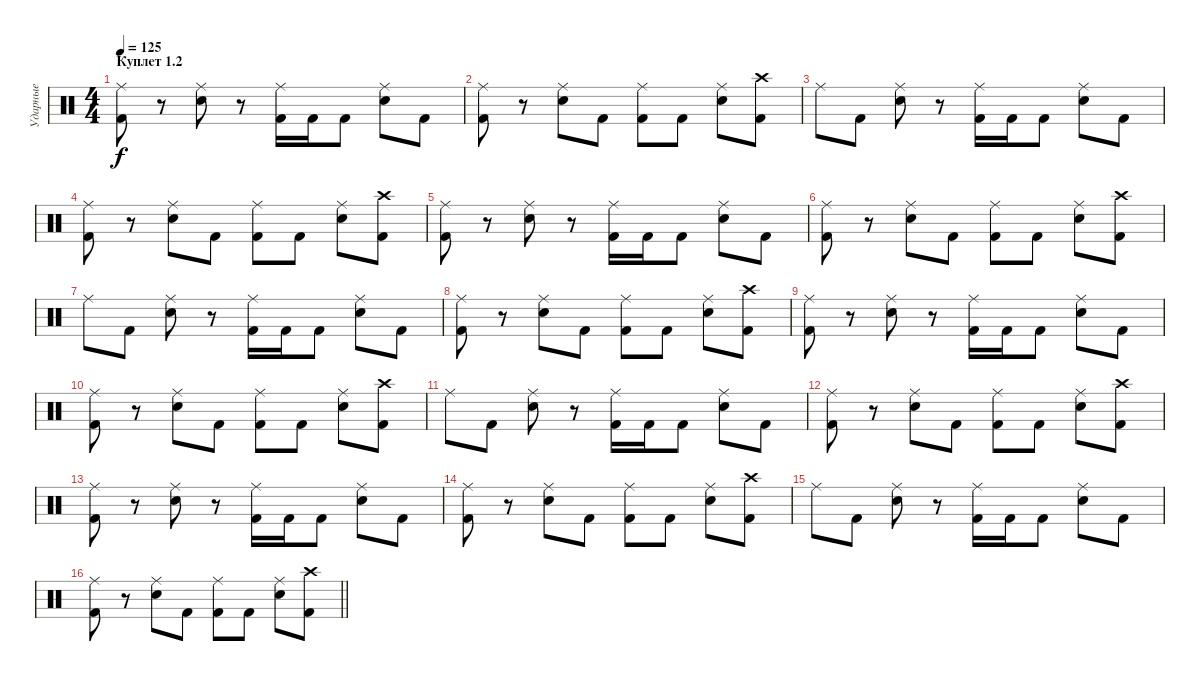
\track ("Ударные" "Ударные") {instrument percussion}
\staff {score}
\articulation defaults
\ts (4 4)
\section ("" "Куплет 1.2")
\tempo 125
\clef neutral
\ks c
("Ride (middle)" "Kick (hit) 2").8{dy f} r.8 ("Ride (middle)" "Snare (hit) 2").8 r.8 ("Ride (middle)" "Kick (hit) 2").16 "Kick (hit) 2".16 "Kick (hit) 2".8 ("Ride (middle)" "Snare (hit) 2").8 "Kick (hit) 2".8 |
("Ride (middle)" "Kick (hit) 2").8 r.8 ("Ride (middle)" "Snare (hit) 2").8 "Kick (hit) 2".8 ("Ride (middle)" "Kick (hit) 2").8 "Kick (hit) 2".8 ("Ride (middle)" "Snare (hit) 2").8 ("Crash high (hit)" "Kick (hit) 2").8 |
"Ride (middle)".8 "Kick (hit) 2".8 ("Ride (middle)" "Snare (hit) 2").8 r.8 ("Ride (middle)" "Kick (hit) 2").16 "Kick (hit) 2".16 "Kick (hit) 2".8 ("Ride (middle)" "Snare (hit) 2").8 "Kick (hit) 2".8 |
("Ride (middle)" "Kick (hit) 2").8 r.8 ("Ride (middle)" "Snare (hit) 2").8 "Kick (hit) 2".8 ("Ride (middle)" "Kick (hit) 2").8 "Kick (hit) 2".8 ("Ride (middle)" "Snare (hit) 2").8 ("Crash high (hit)" "Kick (hit) 2").8 |
("Ride (middle)" "Kick (hit) 2").8 r.8 ("Ride (middle)" "Snare (hit) 2").8 r.8 ("Ride (middle)" "Kick (hit) 2").16 "Kick (hit) 2".16 "Kick (hit) 2".8 ("Ride (middle)" "Snare (hit) 2").8 "Kick (hit) 2".8 |
("Ride (middle)" "Kick (hit) 2").8 r.8 ("Ride (middle)" "Snare (hit) 2").8 "Kick (hit) 2".8 ("Ride (middle)" "Kick (hit) 2").8 "Kick (hit) 2".8 ("Ride (middle)" "Snare (hit) 2").8 ("Crash high (hit)" "Kick (hit) 2").8 |
"Ride (middle)".8 "Kick (hit) 2".8 ("Ride (middle)" "Snare (hit) 2").8 r.8 ("Ride (middle)" "Kick (hit) 2").16 "Kick (hit) 2".16 "Kick (hit) 2".8 ("Ride (middle)" "Snare (hit) 2").8 "Kick (hit) 2".8 |
("Ride (middle)" "Kick (hit) 2").8 r.8 ("Ride (middle)" "Snare (hit) 2").8 "Kick (hit) 2".8 ("Ride (middle)" "Kick (hit) 2").8 "Kick (hit) 2".8 ("Ride (middle)" "Snare (hit) 2").8 ("Crash high (hit)" "Kick (hit) 2").8 |
("Ride (middle)" "Kick (hit) 2").8 r.8 ("Ride (middle)" "Snare (hit) 2").8 r.8 ("Ride (middle)" "Kick (hit) 2").16 "Kick (hit) 2".16 "Kick (hit) 2".8 ("Ride (middle)" "Snare (hit) 2").8 "Kick (hit) 2".8 |
("Ride (middle)" "Kick (hit) 2").8 r.8 ("Ride (middle)" "Snare (hit) 2").8 "Kick (hit) 2".8 ("Ride (middle)" "Kick (hit) 2").8 "Kick (hit) 2".8 ("Ride (middle)" "Snare (hit) 2").8 ("Crash high (hit)" "Kick (hit) 2").8 |
"Ride (middle)".8 "Kick (hit) 2".8 ("Ride (middle)" "Snare (hit) 2").8 r.8 ("Ride (middle)" "Kick (hit) 2").16 "Kick (hit) 2".16 "Kick (hit) 2".8 ("Ride (middle)" "Snare (hit) 2").8 "Kick (hit) 2".8 |
("Ride (middle)" "Kick (hit) 2").8 r.8 ("Ride (middle)" "Snare (hit) 2").8 "Kick (hit) 2".8 ("Ride (middle)" "Kick (hit) 2").8 "Kick (hit) 2".8 ("Ride (middle)" "Snare (hit) 2").8 ("Crash high (hit)" "Kick (hit) 2").8 |
("Ride (middle)" "Kick (hit) 2").8 r.8 ("Ride (middle)" "Snare (hit) 2").8 r.8 ("Ride (middle)" "Kick (hit) 2").16 "Kick (hit) 2".16 "Kick (hit) 2".8 ("Ride (middle)" "Snare (hit) 2").8 "Kick (hit) 2".8 |
("Ride (middle)" "Kick (hit) 2").8 r.8 ("Ride (middle)" "Snare (hit) 2").8 "Kick (hit) 2".8 ("Ride (middle)" "Kick (hit) 2").8 "Kick (hit) 2".8 ("Ride (middle)" "Snare (hit) 2").8 ("Crash high (hit)" "Kick (hit) 2").8 |
"Ride (middle)".8 "Kick (hit) 2".8 ("Ride (middle)" "Snare (hit) 2").8 r.8 ("Ride (middle)" "Kick (hit) 2").16 "Kick (hit) 2".16 "Kick (hit) 2".8 ("Ride (middle)" "Snare (hit) 2").8 "Kick (hit) 2".8 |
\barLineRight lightlight
("Ride (middle)" "Kick (hit) 2").8 r.8 ("Ride (middle)" "Snare (hit) 2").8 "Kick (hit) 2".8 ("Ride (middle)" "Kick (hit) 2").8 "Kick (hit) 2".8 ("Ride (middle)" "Snare (hit) 2").8 ("Crash high (hit)" "Kick (hit) 2").8
